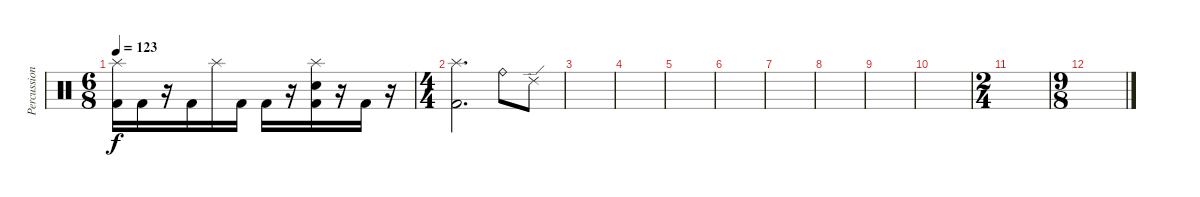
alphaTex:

\track ("Percussion" "Percussion") {instrument percussion}
\staff {score}
\articulation defaults
\ts (6 8)
\tempo 123
\clef neutral
\ks c
("Splash (hit)" "Kick (hit) 2").16{dy f} "Kick (hit) 2".16 r.16 "Kick (hit) 2".16 "Splash (hit)".16 "Kick (hit) 2".16 "Kick (hit) 2".16 r.16 ("Splash (hit)" "Snare (hit) 2" "Kick (hit) 2").16 r.16 "Kick (hit) 2".16 r.16 |
\ts (4 4)
("Splash (hit)" "Kick (hit) 2").2{d} "Ride (bell)".8 "Ride (edge) 2".8 |
|
|
|
|
|
|
|
|
\ts (2 4)
|
\ts (9 8)
